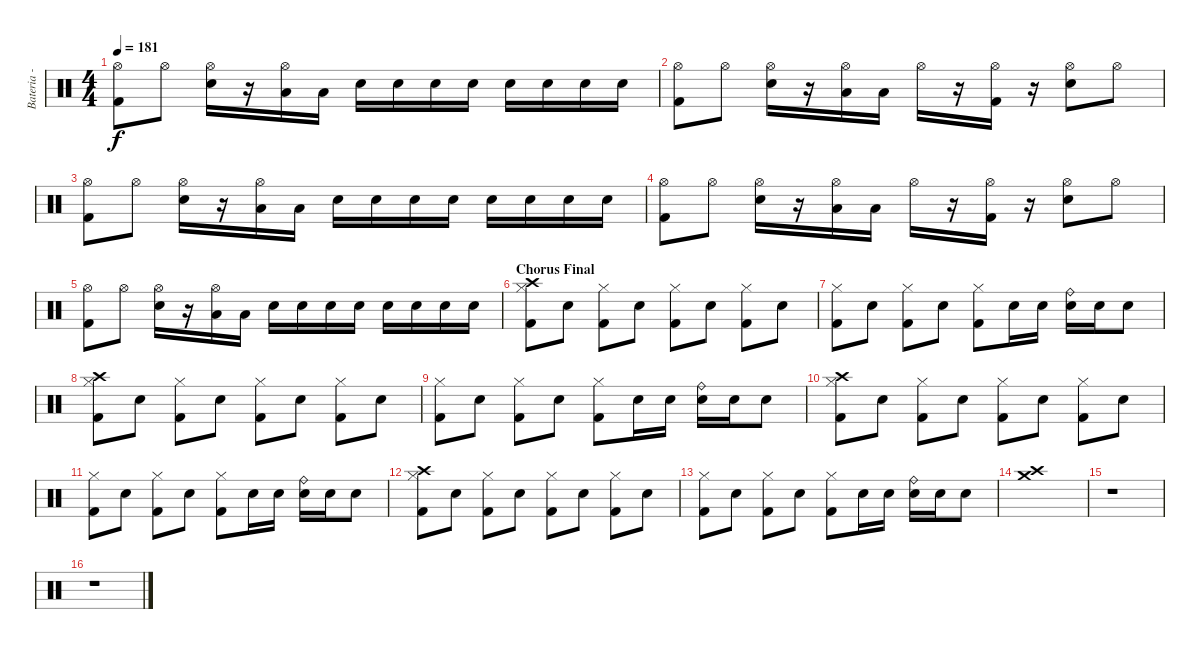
\track ("Bateria - Larzon" "Bateria - ") {instrument percussion}
\staff {score}
\articulation defaults
\ts (4 4)
\tempo 181
\clef neutral
\ks c
("Kick (hit) 2" "Hi-Hat (open)").8{dy f} "Hi-Hat (open)".8 ("Electric Snare (hit)" "Hi-Hat (open)").16 r.16 ("Low Floor Tom (hit)" "Hi-Hat (open)").16 "Low Floor Tom (hit)".16 "Electric Snare (hit)".16 "Electric Snare (hit)".16 "Electric Snare (hit)".16 "Electric Snare (hit)".16 "Electric Snare (hit)".16 "Electric Snare (hit)".16 "Electric Snare (hit)".16 "Electric Snare (hit)".16 |
("Kick (hit) 2" "Hi-Hat (open)").8 "Hi-Hat (open)".8 ("Electric Snare (hit)" "Hi-Hat (open)").16 r.16 ("Low Floor Tom (hit)" "Hi-Hat (open)").16 "Low Floor Tom (hit)".16 "Hi-Hat (open)".16 r.16 ("Kick (hit) 2" "Hi-Hat (open)").16 r.16 ("Electric Snare (hit)" "Hi-Hat (open)").8 "Hi-Hat (open)".8 |
("Kick (hit) 2" "Hi-Hat (open)").8 "Hi-Hat (open)".8 ("Electric Snare (hit)" "Hi-Hat (open)").16 r.16 ("Low Floor Tom (hit)" "Hi-Hat (open)").16 "Low Floor Tom (hit)".16 "Electric Snare (hit)".16 "Electric Snare (hit)".16 "Electric Snare (hit)".16 "Electric Snare (hit)".16 "Electric Snare (hit)".16 "Electric Snare (hit)".16 "Electric Snare (hit)".16 "Electric Snare (hit)".16 |
("Kick (hit) 2" "Hi-Hat (open)").8 "Hi-Hat (open)".8 ("Electric Snare (hit)" "Hi-Hat (open)").16 r.16 ("Low Floor Tom (hit)" "Hi-Hat (open)").16 "Low Floor Tom (hit)".16 "Hi-Hat (open)".16 r.16 ("Kick (hit) 2" "Hi-Hat (open)").16 r.16 ("Electric Snare (hit)" "Hi-Hat (open)").8 "Hi-Hat (open)".8 |
("Kick (hit) 2" "Hi-Hat (open)").8 "Hi-Hat (open)".8 ("Electric Snare (hit)" "Hi-Hat (open)").16 r.16 ("Low Floor Tom (hit)" "Hi-Hat (open)").16 "Low Floor Tom (hit)".16 "Electric Snare (hit)".16 "Electric Snare (hit)".16 "Electric Snare (hit)".16 "Electric Snare (hit)".16 "Electric Snare (hit)".16 "Electric Snare (hit)".16 "Electric Snare (hit)".16 "Electric Snare (hit)".16 |
\section ("" "Chorus Final")
("Kick (hit) 2" "Crash high (hit)" "Hi-Hat (closed)").8 "Electric Snare (hit)".8 ("Kick (hit) 2" "Hi-Hat (closed)").8 "Electric Snare (hit)".8 ("Kick (hit) 2" "Hi-Hat (closed)").8 "Electric Snare (hit)".8 ("Kick (hit) 2" "Hi-Hat (closed)").8 "Electric Snare (hit)".8 |
("Kick (hit) 2" "Hi-Hat (closed)").8 "Electric Snare (hit)".8 ("Kick (hit) 2" "Hi-Hat (closed)").8 "Electric Snare (hit)".8 ("Kick (hit) 2" "Hi-Hat (closed)").8 "Electric Snare (hit)".16 "Electric Snare (hit)".16 ("Electric Snare (hit)" "Ride (bell)").16 "Electric Snare (hit)".16 "Electric Snare (hit)".8 |
("Kick (hit) 2" "Crash high (hit)" "Hi-Hat (closed)").8 "Electric Snare (hit)".8 ("Kick (hit) 2" "Hi-Hat (closed)").8 "Electric Snare (hit)".8 ("Kick (hit) 2" "Hi-Hat (closed)").8 "Electric Snare (hit)".8 ("Kick (hit) 2" "Hi-Hat (closed)").8 "Electric Snare (hit)".8 |
("Kick (hit) 2" "Hi-Hat (closed)").8 "Electric Snare (hit)".8 ("Kick (hit) 2" "Hi-Hat (closed)").8 "Electric Snare (hit)".8 ("Kick (hit) 2" "Hi-Hat (closed)").8 "Electric Snare (hit)".16 "Electric Snare (hit)".16 ("Electric Snare (hit)" "Ride (bell)").16 "Electric Snare (hit)".16 "Electric Snare (hit)".8 |
("Kick (hit) 2" "Crash high (hit)" "Hi-Hat (closed)").8 "Electric Snare (hit)".8 ("Kick (hit) 2" "Hi-Hat (closed)").8 "Electric Snare (hit)".8 ("Kick (hit) 2" "Hi-Hat (closed)").8 "Electric Snare (hit)".8 ("Kick (hit) 2" "Hi-Hat (closed)").8 "Electric Snare (hit)".8 |
("Kick (hit) 2" "Hi-Hat (closed)").8 "Electric Snare (hit)".8 ("Kick (hit) 2" "Hi-Hat (closed)").8 "Electric Snare (hit)".8 ("Kick (hit) 2" "Hi-Hat (closed)").8 "Electric Snare (hit)".16 "Electric Snare (hit)".16 ("Electric Snare (hit)" "Ride (bell)").16 "Electric Snare (hit)".16 "Electric Snare (hit)".8 |
("Kick (hit) 2" "Crash high (hit)" "Hi-Hat (closed)").8 "Electric Snare (hit)".8 ("Kick (hit) 2" "Hi-Hat (closed)").8 "Electric Snare (hit)".8 ("Kick (hit) 2" "Hi-Hat (closed)").8 "Electric Snare (hit)".8 ("Kick (hit) 2" "Hi-Hat (closed)").8 "Electric Snare (hit)".8 |
("Kick (hit) 2" "Hi-Hat (closed)").8 "Electric Snare (hit)".8 ("Kick (hit) 2" "Hi-Hat (closed)").8 "Electric Snare (hit)".8 ("Kick (hit) 2" "Hi-Hat (closed)").8 "Electric Snare (hit)".16 "Electric Snare (hit)".16 ("Electric Snare (hit)" "Ride (bell)").16 "Electric Snare (hit)".16 "Electric Snare (hit)".8 |
("Crash high (hit)" "Crash medium (hit)").1 |
r.1 |
r.1
